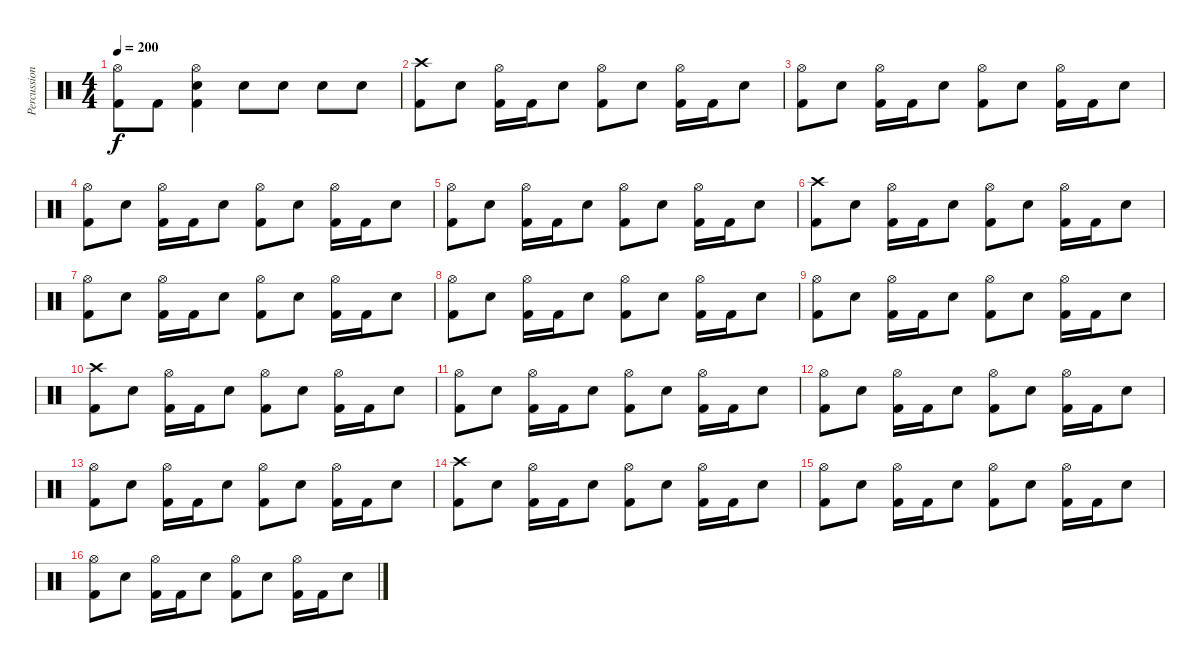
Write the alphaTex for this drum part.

\track ("Percussion" "Percussion") {instrument percussion}
\staff {score}
\articulation defaults
\ts (4 4)
\tempo 200
\clef neutral
\ks c
("Hi-Hat (open)" "Kick (hit) 2").8{dy f} "Kick (hit) 2".8 ("Hi-Hat (open)" "Snare (hit) 2" "Kick (hit) 2").4 "Snare (hit) 2".8 "Snare (hit) 2".8 "Snare (hit) 2".8 "Snare (hit) 2".8 |
("Crash high (hit)" "Kick (hit) 2").8 "Snare (hit) 2".8 ("Hi-Hat (open)" "Kick (hit) 2").16 "Kick (hit) 2".16 "Snare (hit) 2".8 ("Hi-Hat (open)" "Kick (hit) 2").8 "Snare (hit) 2".8 ("Hi-Hat (open)" "Kick (hit) 2").16 "Kick (hit) 2".16 "Snare (hit) 2".8 |
("Hi-Hat (open)" "Kick (hit) 2").8 "Snare (hit) 2".8 ("Hi-Hat (open)" "Kick (hit) 2").16 "Kick (hit) 2".16 "Snare (hit) 2".8 ("Hi-Hat (open)" "Kick (hit) 2").8 "Snare (hit) 2".8 ("Hi-Hat (open)" "Kick (hit) 2").16 "Kick (hit) 2".16 "Snare (hit) 2".8 |
("Hi-Hat (open)" "Kick (hit) 2").8 "Snare (hit) 2".8 ("Hi-Hat (open)" "Kick (hit) 2").16 "Kick (hit) 2".16 "Snare (hit) 2".8 ("Hi-Hat (open)" "Kick (hit) 2").8 "Snare (hit) 2".8 ("Hi-Hat (open)" "Kick (hit) 2").16 "Kick (hit) 2".16 "Snare (hit) 2".8 |
("Hi-Hat (open)" "Kick (hit) 2").8 "Snare (hit) 2".8 ("Hi-Hat (open)" "Kick (hit) 2").16 "Kick (hit) 2".16 "Snare (hit) 2".8 ("Hi-Hat (open)" "Kick (hit) 2").8 "Snare (hit) 2".8 ("Hi-Hat (open)" "Kick (hit) 2").16 "Kick (hit) 2".16 "Snare (hit) 2".8 |
("Crash high (hit)" "Kick (hit) 2").8 "Snare (hit) 2".8 ("Hi-Hat (open)" "Kick (hit) 2").16 "Kick (hit) 2".16 "Snare (hit) 2".8 ("Hi-Hat (open)" "Kick (hit) 2").8 "Snare (hit) 2".8 ("Hi-Hat (open)" "Kick (hit) 2").16 "Kick (hit) 2".16 "Snare (hit) 2".8 |
("Hi-Hat (open)" "Kick (hit) 2").8 "Snare (hit) 2".8 ("Hi-Hat (open)" "Kick (hit) 2").16 "Kick (hit) 2".16 "Snare (hit) 2".8 ("Hi-Hat (open)" "Kick (hit) 2").8 "Snare (hit) 2".8 ("Hi-Hat (open)" "Kick (hit) 2").16 "Kick (hit) 2".16 "Snare (hit) 2".8 |
("Hi-Hat (open)" "Kick (hit) 2").8 "Snare (hit) 2".8 ("Hi-Hat (open)" "Kick (hit) 2").16 "Kick (hit) 2".16 "Snare (hit) 2".8 ("Hi-Hat (open)" "Kick (hit) 2").8 "Snare (hit) 2".8 ("Hi-Hat (open)" "Kick (hit) 2").16 "Kick (hit) 2".16 "Snare (hit) 2".8 |
("Hi-Hat (open)" "Kick (hit) 2").8 "Snare (hit) 2".8 ("Hi-Hat (open)" "Kick (hit) 2").16 "Kick (hit) 2".16 "Snare (hit) 2".8 ("Hi-Hat (open)" "Kick (hit) 2").8 "Snare (hit) 2".8 ("Hi-Hat (open)" "Kick (hit) 2").16 "Kick (hit) 2".16 "Snare (hit) 2".8 |
("Crash high (hit)" "Kick (hit) 2").8 "Snare (hit) 2".8 ("Hi-Hat (open)" "Kick (hit) 2").16 "Kick (hit) 2".16 "Snare (hit) 2".8 ("Hi-Hat (open)" "Kick (hit) 2").8 "Snare (hit) 2".8 ("Hi-Hat (open)" "Kick (hit) 2").16 "Kick (hit) 2".16 "Snare (hit) 2".8 |
("Hi-Hat (open)" "Kick (hit) 2").8 "Snare (hit) 2".8 ("Hi-Hat (open)" "Kick (hit) 2").16 "Kick (hit) 2".16 "Snare (hit) 2".8 ("Hi-Hat (open)" "Kick (hit) 2").8 "Snare (hit) 2".8 ("Hi-Hat (open)" "Kick (hit) 2").16 "Kick (hit) 2".16 "Snare (hit) 2".8 |
("Hi-Hat (open)" "Kick (hit) 2").8 "Snare (hit) 2".8 ("Hi-Hat (open)" "Kick (hit) 2").16 "Kick (hit) 2".16 "Snare (hit) 2".8 ("Hi-Hat (open)" "Kick (hit) 2").8 "Snare (hit) 2".8 ("Hi-Hat (open)" "Kick (hit) 2").16 "Kick (hit) 2".16 "Snare (hit) 2".8 |
("Hi-Hat (open)" "Kick (hit) 2").8 "Snare (hit) 2".8 ("Hi-Hat (open)" "Kick (hit) 2").16 "Kick (hit) 2".16 "Snare (hit) 2".8 ("Hi-Hat (open)" "Kick (hit) 2").8 "Snare (hit) 2".8 ("Hi-Hat (open)" "Kick (hit) 2").16 "Kick (hit) 2".16 "Snare (hit) 2".8 |
("Crash high (hit)" "Kick (hit) 2").8 "Snare (hit) 2".8 ("Hi-Hat (open)" "Kick (hit) 2").16 "Kick (hit) 2".16 "Snare (hit) 2".8 ("Hi-Hat (open)" "Kick (hit) 2").8 "Snare (hit) 2".8 ("Hi-Hat (open)" "Kick (hit) 2").16 "Kick (hit) 2".16 "Snare (hit) 2".8 |
("Hi-Hat (open)" "Kick (hit) 2").8 "Snare (hit) 2".8 ("Hi-Hat (open)" "Kick (hit) 2").16 "Kick (hit) 2".16 "Snare (hit) 2".8 ("Hi-Hat (open)" "Kick (hit) 2").8 "Snare (hit) 2".8 ("Hi-Hat (open)" "Kick (hit) 2").16 "Kick (hit) 2".16 "Snare (hit) 2".8 |
("Hi-Hat (open)" "Kick (hit) 2").8 "Snare (hit) 2".8 ("Hi-Hat (open)" "Kick (hit) 2").16 "Kick (hit) 2".16 "Snare (hit) 2".8 ("Hi-Hat (open)" "Kick (hit) 2").8 "Snare (hit) 2".8 ("Hi-Hat (open)" "Kick (hit) 2").16 "Kick (hit) 2".16 "Snare (hit) 2".8
